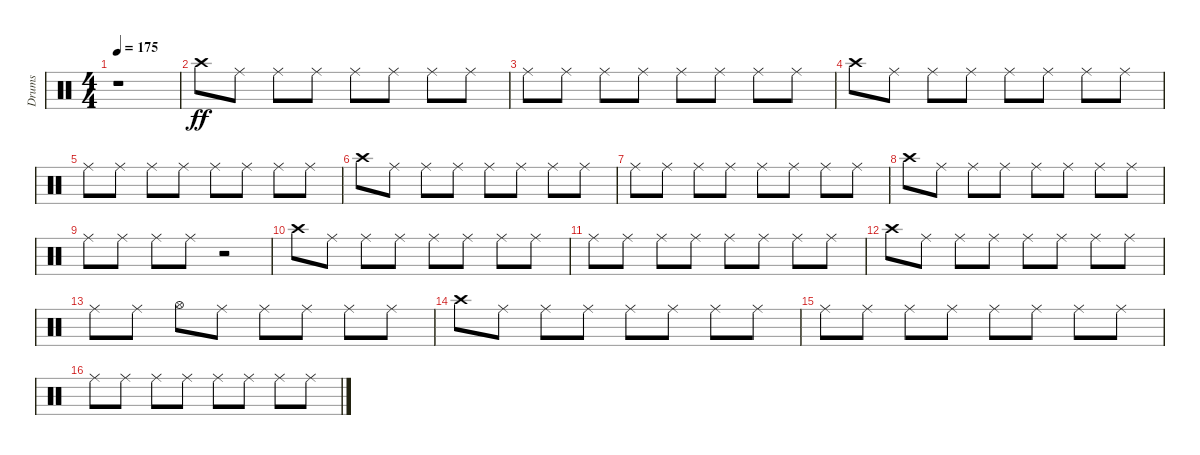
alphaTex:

\track ("Drums" "Drums") {instrument percussion}
\staff {score}
\articulation defaults
\ts (4 4)
\tempo 175
\clef neutral
\ks c
r.1{dy f} |
"Crash high (hit)".8{dy ff} "Ride (middle)".8 "Ride (middle)".8 "Ride (middle)".8 "Ride (middle)".8 "Ride (middle)".8 "Ride (middle)".8 "Ride (middle)".8 |
"Ride (middle)".8 "Ride (middle)".8 "Ride (middle)".8 "Ride (middle)".8 "Ride (middle)".8 "Ride (middle)".8 "Ride (middle)".8 "Ride (middle)".8 |
"Crash high (hit)".8 "Ride (middle)".8 "Ride (middle)".8 "Ride (middle)".8 "Ride (middle)".8 "Ride (middle)".8 "Ride (middle)".8 "Ride (middle)".8 |
"Ride (middle)".8 "Ride (middle)".8 "Ride (middle)".8 "Ride (middle)".8 "Ride (middle)".8 "Ride (middle)".8 "Ride (middle)".8 "Ride (middle)".8 |
"Crash high (hit)".8 "Ride (middle)".8 "Ride (middle)".8 "Ride (middle)".8 "Ride (middle)".8 "Ride (middle)".8 "Ride (middle)".8 "Ride (middle)".8 |
"Ride (middle)".8 "Ride (middle)".8 "Ride (middle)".8 "Ride (middle)".8 "Ride (middle)".8 "Ride (middle)".8 "Ride (middle)".8 "Ride (middle)".8 |
"Crash high (hit)".8 "Ride (middle)".8 "Ride (middle)".8 "Ride (middle)".8 "Ride (middle)".8 "Ride (middle)".8 "Ride (middle)".8 "Ride (middle)".8 |
"Ride (middle)".8 "Ride (middle)".8 "Ride (middle)".8 "Ride (middle)".8 r.2 |
"Crash high (hit)".8 "Ride (middle)".8 "Ride (middle)".8 "Ride (middle)".8 "Ride (middle)".8 "Ride (middle)".8 "Ride (middle)".8 "Ride (middle)".8 |
"Ride (middle)".8 "Ride (middle)".8 "Ride (middle)".8 "Ride (middle)".8 "Ride (middle)".8 "Ride (middle)".8 "Ride (middle)".8 "Ride (middle)".8 |
"Crash high (hit)".8 "Ride (middle)".8 "Ride (middle)".8 "Ride (middle)".8 "Ride (middle)".8 "Ride (middle)".8 "Ride (middle)".8 "Ride (middle)".8 |
"Ride (middle)".8 "Ride (middle)".8 "Hi-Hat (open)".8 "Ride (middle)".8 "Ride (middle)".8 "Ride (middle)".8 "Ride (middle)".8 "Ride (middle)".8 |
"Crash high (hit)".8 "Ride (middle)".8 "Ride (middle)".8 "Ride (middle)".8 "Ride (middle)".8 "Ride (middle)".8 "Ride (middle)".8 "Ride (middle)".8 |
"Ride (middle)".8 "Ride (middle)".8 "Ride (middle)".8 "Ride (middle)".8 "Ride (middle)".8 "Ride (middle)".8 "Ride (middle)".8 "Ride (middle)".8 |
"Ride (middle)".8 "Ride (middle)".8 "Ride (middle)".8 "Ride (middle)".8 "Ride (middle)".8 "Ride (middle)".8 "Ride (middle)".8 "Ride (middle)".8
